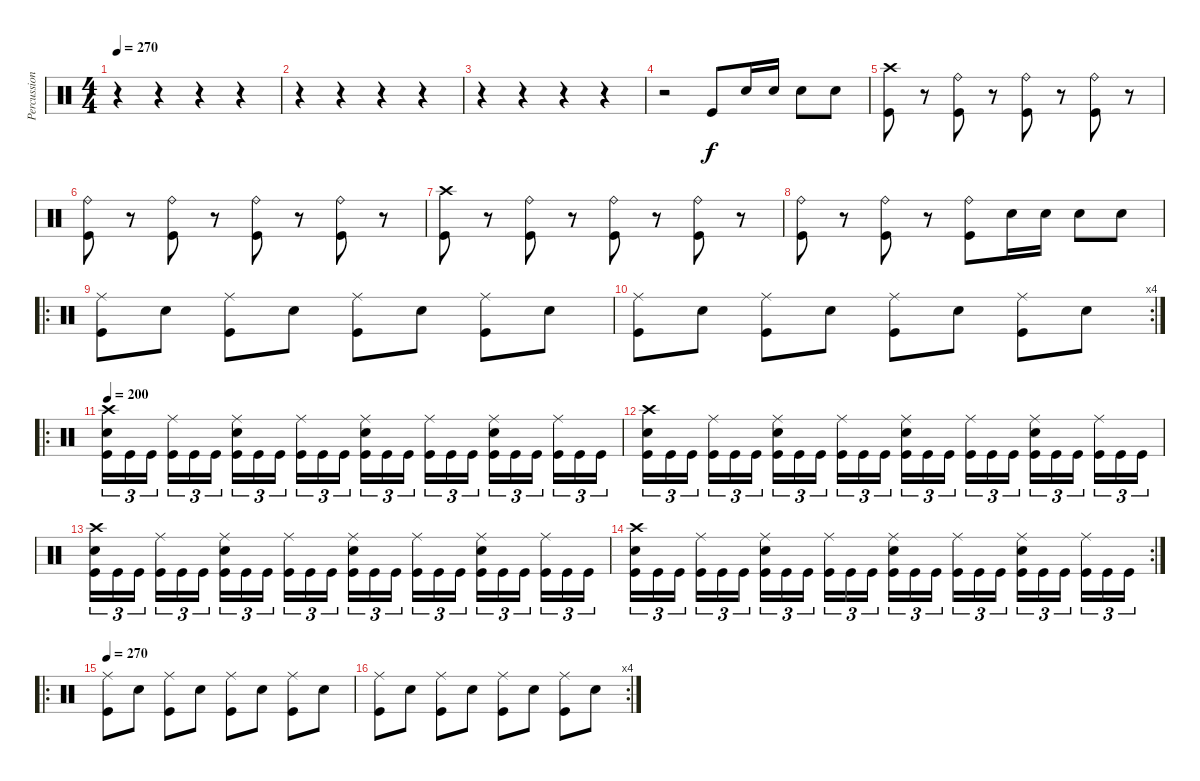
\track ("Percussion" "Percussion") {instrument percussion}
\staff {score}
\articulation defaults
\ts (4 4)
\tempo 270
\clef neutral
\ks c
r.4{dy f} r.4 r.4 r.4 |
r.4 r.4 r.4 r.4 |
r.4 r.4 r.4 r.4 |
r.2 "Kick (hit)".8 "Snare (hit) 2".16 "Snare (hit) 2".16 "Snare (hit) 2".8 "Snare (hit) 2".8 |
("Crash high (hit)" "Kick (hit)").8 r.8 ("Ride (bell)" "Kick (hit)").8 r.8 ("Ride (bell)" "Kick (hit)").8 r.8 ("Ride (bell)" "Kick (hit)").8 r.8 |
("Ride (bell)" "Kick (hit)").8 r.8 ("Ride (bell)" "Kick (hit)").8 r.8 ("Ride (bell)" "Kick (hit)").8 r.8 ("Ride (bell)" "Kick (hit)").8 r.8 |
("Crash high (hit)" "Kick (hit)").8 r.8 ("Ride (bell)" "Kick (hit)").8 r.8 ("Ride (bell)" "Kick (hit)").8 r.8 ("Ride (bell)" "Kick (hit)").8 r.8 |
("Ride (bell)" "Kick (hit)").8 r.8 ("Ride (bell)" "Kick (hit)").8 r.8 ("Ride (bell)" "Kick (hit)").8 "Snare (hit) 2".16 "Snare (hit) 2".16 "Snare (hit) 2".8 "Snare (hit) 2".8 |
\ro
("Ride (middle)" "Kick (hit)").8 "Snare (hit) 2".8 ("Ride (middle)" "Kick (hit)").8 "Snare (hit) 2".8 ("Ride (middle)" "Kick (hit)").8 "Snare (hit) 2".8 ("Ride (middle)" "Kick (hit)").8 "Snare (hit) 2".8 |
\rc 4
("Ride (middle)" "Kick (hit)").8 "Snare (hit) 2".8 ("Ride (middle)" "Kick (hit)").8 "Snare (hit) 2".8 ("Ride (middle)" "Kick (hit)").8 "Snare (hit) 2".8 ("Ride (middle)" "Kick (hit)").8 "Snare (hit) 2".8 |
\ro
\tempo 200
("Crash high (hit)" "Snare (hit) 2" "Kick (hit)").16{tu (3 2)} "Kick (hit)".16{tu (3 2)} "Kick (hit)".16{tu (3 2)} ("Ride (middle)" "Kick (hit)").16{tu (3 2)} "Kick (hit)".16{tu (3 2)} "Kick (hit)".16{tu (3 2)} ("Ride (middle)" "Snare (hit) 2" "Kick (hit)").16{tu (3 2)} "Kick (hit)".16{tu (3 2)} "Kick (hit)".16{tu (3 2)} ("Ride (middle)" "Kick (hit)").16{tu (3 2)} "Kick (hit)".16{tu (3 2)} "Kick (hit)".16{tu (3 2)} ("Ride (middle)" "Snare (hit) 2" "Kick (hit)").16{tu (3 2)} "Kick (hit)".16{tu (3 2)} "Kick (hit)".16{tu (3 2)} ("Ride (middle)" "Kick (hit)").16{tu (3 2)} "Kick (hit)".16{tu (3 2)} "Kick (hit)".16{tu (3 2)} ("Ride (middle)" "Snare (hit) 2" "Kick (hit)").16{tu (3 2)} "Kick (hit)".16{tu (3 2)} "Kick (hit)".16{tu (3 2)} ("Ride (middle)" "Kick (hit)").16{tu (3 2)} "Kick (hit)".16{tu (3 2)} "Kick (hit)".16{tu (3 2)} |
("Crash high (hit)" "Snare (hit) 2" "Kick (hit)").16{tu (3 2)} "Kick (hit)".16{tu (3 2)} "Kick (hit)".16{tu (3 2)} ("Ride (middle)" "Kick (hit)").16{tu (3 2)} "Kick (hit)".16{tu (3 2)} "Kick (hit)".16{tu (3 2)} ("Ride (middle)" "Snare (hit) 2" "Kick (hit)").16{tu (3 2)} "Kick (hit)".16{tu (3 2)} "Kick (hit)".16{tu (3 2)} ("Ride (middle)" "Kick (hit)").16{tu (3 2)} "Kick (hit)".16{tu (3 2)} "Kick (hit)".16{tu (3 2)} ("Ride (middle)" "Snare (hit) 2" "Kick (hit)").16{tu (3 2)} "Kick (hit)".16{tu (3 2)} "Kick (hit)".16{tu (3 2)} ("Ride (middle)" "Kick (hit)").16{tu (3 2)} "Kick (hit)".16{tu (3 2)} "Kick (hit)".16{tu (3 2)} ("Ride (middle)" "Snare (hit) 2" "Kick (hit)").16{tu (3 2)} "Kick (hit)".16{tu (3 2)} "Kick (hit)".16{tu (3 2)} ("Ride (middle)" "Kick (hit)").16{tu (3 2)} "Kick (hit)".16{tu (3 2)} "Kick (hit)".16{tu (3 2)} |
("Crash high (hit)" "Snare (hit) 2" "Kick (hit)").16{tu (3 2)} "Kick (hit)".16{tu (3 2)} "Kick (hit)".16{tu (3 2)} ("Ride (middle)" "Kick (hit)").16{tu (3 2)} "Kick (hit)".16{tu (3 2)} "Kick (hit)".16{tu (3 2)} ("Ride (middle)" "Snare (hit) 2" "Kick (hit)").16{tu (3 2)} "Kick (hit)".16{tu (3 2)} "Kick (hit)".16{tu (3 2)} ("Ride (middle)" "Kick (hit)").16{tu (3 2)} "Kick (hit)".16{tu (3 2)} "Kick (hit)".16{tu (3 2)} ("Ride (middle)" "Snare (hit) 2" "Kick (hit)").16{tu (3 2)} "Kick (hit)".16{tu (3 2)} "Kick (hit)".16{tu (3 2)} ("Ride (middle)" "Kick (hit)").16{tu (3 2)} "Kick (hit)".16{tu (3 2)} "Kick (hit)".16{tu (3 2)} ("Ride (middle)" "Snare (hit) 2" "Kick (hit)").16{tu (3 2)} "Kick (hit)".16{tu (3 2)} "Kick (hit)".16{tu (3 2)} ("Ride (middle)" "Kick (hit)").16{tu (3 2)} "Kick (hit)".16{tu (3 2)} "Kick (hit)".16{tu (3 2)} |
\rc 2
("Crash high (hit)" "Snare (hit) 2" "Kick (hit)").16{tu (3 2)} "Kick (hit)".16{tu (3 2)} "Kick (hit)".16{tu (3 2)} ("Ride (middle)" "Kick (hit)").16{tu (3 2)} "Kick (hit)".16{tu (3 2)} "Kick (hit)".16{tu (3 2)} ("Ride (middle)" "Snare (hit) 2" "Kick (hit)").16{tu (3 2)} "Kick (hit)".16{tu (3 2)} "Kick (hit)".16{tu (3 2)} ("Ride (middle)" "Kick (hit)").16{tu (3 2)} "Kick (hit)".16{tu (3 2)} "Kick (hit)".16{tu (3 2)} ("Ride (middle)" "Snare (hit) 2" "Kick (hit)").16{tu (3 2)} "Kick (hit)".16{tu (3 2)} "Kick (hit)".16{tu (3 2)} ("Ride (middle)" "Kick (hit)").16{tu (3 2)} "Kick (hit)".16{tu (3 2)} "Kick (hit)".16{tu (3 2)} ("Ride (middle)" "Snare (hit) 2" "Kick (hit)").16{tu (3 2)} "Kick (hit)".16{tu (3 2)} "Kick (hit)".16{tu (3 2)} ("Ride (middle)" "Kick (hit)").16{tu (3 2)} "Kick (hit)".16{tu (3 2)} "Kick (hit)".16{tu (3 2)} |
\ro
\tempo 270
("Ride (middle)" "Kick (hit)").8 "Snare (hit) 2".8 ("Ride (middle)" "Kick (hit)").8 "Snare (hit) 2".8 ("Ride (middle)" "Kick (hit)").8 "Snare (hit) 2".8 ("Ride (middle)" "Kick (hit)").8 "Snare (hit) 2".8 |
\rc 4
("Ride (middle)" "Kick (hit)").8 "Snare (hit) 2".8 ("Ride (middle)" "Kick (hit)").8 "Snare (hit) 2".8 ("Ride (middle)" "Kick (hit)").8 "Snare (hit) 2".8 ("Ride (middle)" "Kick (hit)").8 "Snare (hit) 2".8
